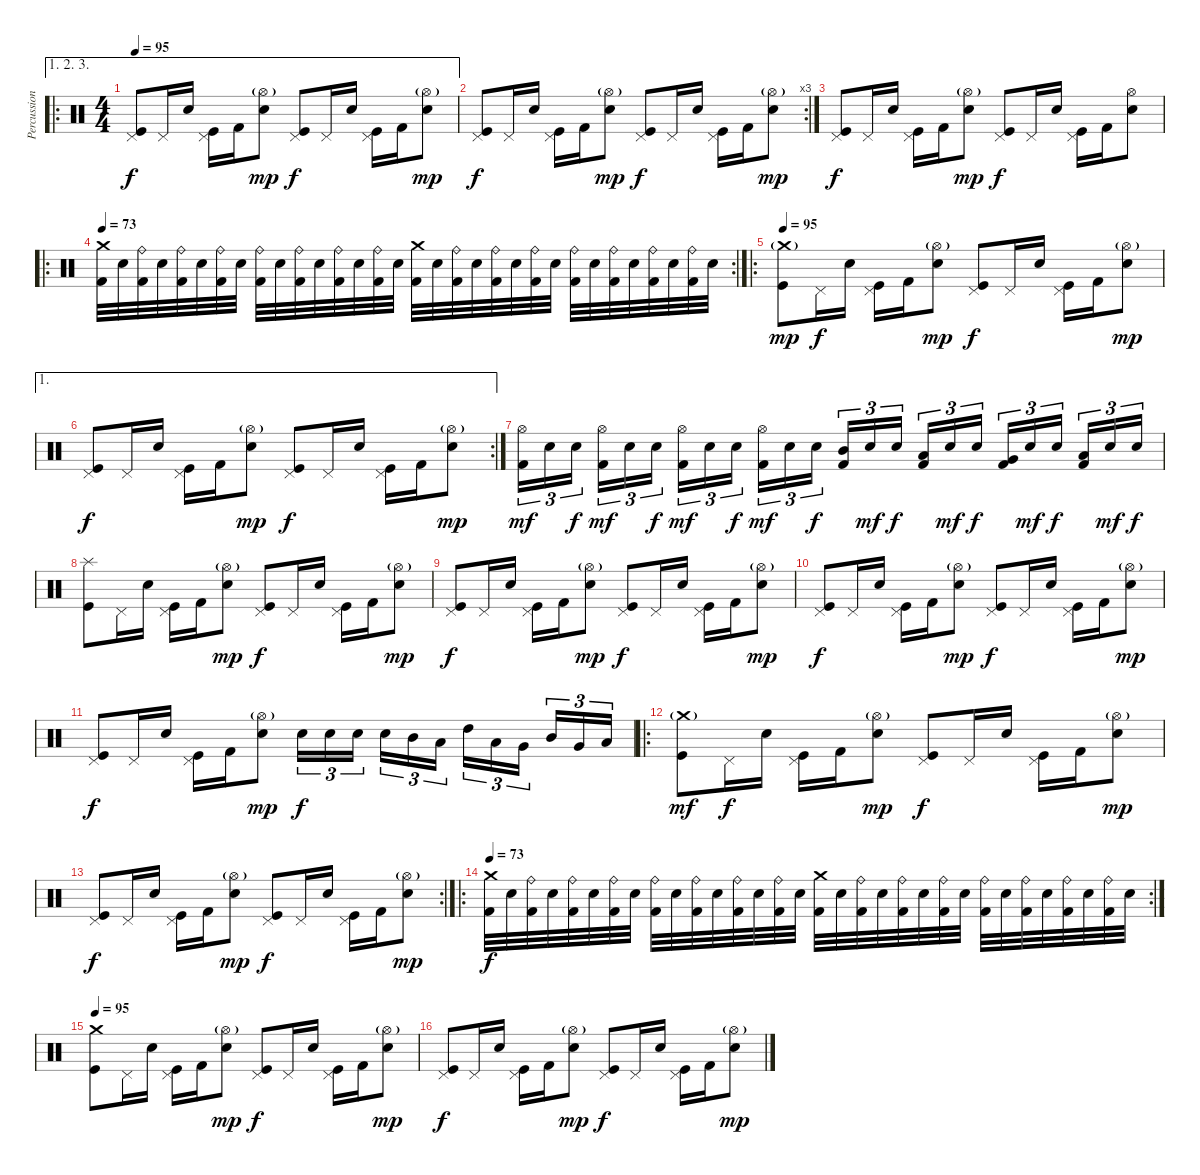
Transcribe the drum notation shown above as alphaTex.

\track ("Percussion" "Percussion") {instrument percussion}
\staff {score}
\articulation defaults
\ae (1 2 3)
\ro
\ts (4 4)
\tempo 95
\clef neutral
\ks c
("Pedal Hi-Hat (hit)" "Kick (hit)").8{dy f} "Pedal Hi-Hat (hit)".16 "Electric Snare (hit)".16 ("Pedal Hi-Hat (hit)" "Kick (hit)").16 "Kick (hit) 2".16 ("Hi-Hat (open)"{g} "Electric Snare (hit)").8{dy mp} ("Pedal Hi-Hat (hit)" "Kick (hit)").8{dy f} "Pedal Hi-Hat (hit)".16 "Electric Snare (hit)".16 ("Pedal Hi-Hat (hit)" "Kick (hit)").16 "Kick (hit) 2".16 ("Hi-Hat (open)"{g} "Electric Snare (hit)").8{dy mp} |
\rc 3
("Pedal Hi-Hat (hit)" "Kick (hit)").8{dy f} "Pedal Hi-Hat (hit)".16 "Electric Snare (hit)".16 ("Pedal Hi-Hat (hit)" "Kick (hit)").16 "Kick (hit) 2".16 ("Hi-Hat (open)"{g} "Electric Snare (hit)").8{dy mp} ("Pedal Hi-Hat (hit)" "Kick (hit)").8{dy f} "Pedal Hi-Hat (hit)".16 "Electric Snare (hit)".16 ("Pedal Hi-Hat (hit)" "Kick (hit)").16 "Kick (hit) 2".16 ("Hi-Hat (open)"{g} "Electric Snare (hit)").8{dy mp} |
("Pedal Hi-Hat (hit)" "Kick (hit)").8{dy f} "Pedal Hi-Hat (hit)".16 "Electric Snare (hit)".16 ("Pedal Hi-Hat (hit)" "Kick (hit)").16 "Kick (hit) 2".16 ("Hi-Hat (open)"{g} "Electric Snare (hit)").8{dy mp} ("Pedal Hi-Hat (hit)" "Kick (hit)").8{dy f} "Pedal Hi-Hat (hit)".16 "Electric Snare (hit)".16 ("Pedal Hi-Hat (hit)" "Kick (hit)").16 "Kick (hit) 2".16 ("Hi-Hat (open)" "Electric Snare (hit)").8 |
\ro
\rc 2
\tempo 73
("Crash medium (hit)" "Kick (hit) 2").32 "Electric Snare (hit)".32 ("Ride (bell)" "Kick (hit) 2").32 "Electric Snare (hit)".32 ("Ride (bell)" "Kick (hit) 2").32 "Electric Snare (hit)".32 ("Ride (bell)" "Kick (hit) 2").32 "Electric Snare (hit)".32 ("Ride (bell)" "Kick (hit) 2").32 "Electric Snare (hit)".32 ("Ride (bell)" "Kick (hit) 2").32 "Electric Snare (hit)".32 ("Ride (bell)" "Kick (hit) 2").32 "Electric Snare (hit)".32 ("Ride (bell)" "Kick (hit) 2").32 "Electric Snare (hit)".32 ("Crash medium (hit)" "Kick (hit) 2").32 "Electric Snare (hit)".32 ("Ride (bell)" "Kick (hit) 2").32 "Electric Snare (hit)".32 ("Ride (bell)" "Kick (hit) 2").32 "Electric Snare (hit)".32 ("Ride (bell)" "Kick (hit) 2").32 "Electric Snare (hit)".32 ("Ride (bell)" "Kick (hit) 2").32 "Electric Snare (hit)".32 ("Ride (bell)" "Kick (hit) 2").32 "Electric Snare (hit)".32 ("Ride (bell)" "Kick (hit) 2").32 "Electric Snare (hit)".32 ("Ride (bell)" "Kick (hit) 2").32 "Electric Snare (hit)".32 |
\ro
\tempo 95
("Crash medium (hit)"{g} "Kick (hit)").8{dy mp} "Pedal Hi-Hat (hit)".16{dy f} "Electric Snare (hit)".16 ("Pedal Hi-Hat (hit)" "Kick (hit)").16 "Kick (hit) 2".16 ("Hi-Hat (open)"{g} "Electric Snare (hit)").8{dy mp} ("Pedal Hi-Hat (hit)" "Kick (hit)").8{dy f} "Pedal Hi-Hat (hit)".16 "Electric Snare (hit)".16 ("Pedal Hi-Hat (hit)" "Kick (hit)").16 "Kick (hit) 2".16 ("Hi-Hat (open)"{g} "Electric Snare (hit)").8{dy mp} |
\ae 1
\rc 2
("Pedal Hi-Hat (hit)" "Kick (hit)").8{dy f} "Pedal Hi-Hat (hit)".16 "Electric Snare (hit)".16 ("Pedal Hi-Hat (hit)" "Kick (hit)").16 "Kick (hit) 2".16 ("Hi-Hat (open)"{g} "Electric Snare (hit)").8{dy mp} ("Pedal Hi-Hat (hit)" "Kick (hit)").8{dy f} "Pedal Hi-Hat (hit)".16 "Electric Snare (hit)".16 ("Pedal Hi-Hat (hit)" "Kick (hit)").16 "Kick (hit) 2".16 ("Hi-Hat (open)"{g} "Electric Snare (hit)").8{dy mp} |
("Hi-Hat (open)" "Kick (hit) 2").16{tu (3 2) dy mf} "Electric Snare (hit)".16{tu (3 2)} "Electric Snare (hit)".16{tu (3 2) dy f beam splitsecondary} ("Hi-Hat (open)" "Kick (hit) 2").16{tu (3 2) dy mf} "Electric Snare (hit)".16{tu (3 2)} "Electric Snare (hit)".16{tu (3 2) dy f} ("Hi-Hat (open)" "Kick (hit) 2").16{tu (3 2) dy mf} "Electric Snare (hit)".16{tu (3 2)} "Electric Snare (hit)".16{tu (3 2) dy f beam splitsecondary} ("Hi-Hat (open)" "Kick (hit) 2").16{tu (3 2) dy mf} "Electric Snare (hit)".16{tu (3 2)} "Electric Snare (hit)".16{tu (3 2) dy f} ("Mid Tom (hit)" "Kick (hit) 2").16{tu (3 2)} "Electric Snare (hit)".16{tu (3 2) dy mf} "Electric Snare (hit)".16{tu (3 2) dy f beam splitsecondary} ("Low Tom (hit)" "Kick (hit) 2").16{tu (3 2)} "Electric Snare (hit)".16{tu (3 2) dy mf} "Electric Snare (hit)".16{tu (3 2) dy f} ("Very Low Tom (hit)" "Kick (hit) 2").16{tu (3 2)} "Electric Snare (hit)".16{tu (3 2) dy mf} "Electric Snare (hit)".16{tu (3 2) dy f beam splitsecondary} ("Low Floor Tom (hit)" "Kick (hit) 2").16{tu (3 2)} "Electric Snare (hit)".16{tu (3 2) dy mf} "Electric Snare (hit)".16{tu (3 2) dy f} |
("Splash (hit)" "Kick (hit)").8 "Pedal Hi-Hat (hit)".16 "Electric Snare (hit)".16 ("Pedal Hi-Hat (hit)" "Kick (hit)").16 "Kick (hit) 2".16 ("Hi-Hat (open)"{g} "Electric Snare (hit)").8{dy mp} ("Pedal Hi-Hat (hit)" "Kick (hit)").8{dy f} "Pedal Hi-Hat (hit)".16 "Electric Snare (hit)".16 ("Pedal Hi-Hat (hit)" "Kick (hit)").16 "Kick (hit) 2".16 ("Hi-Hat (open)"{g} "Electric Snare (hit)").8{dy mp} |
("Pedal Hi-Hat (hit)" "Kick (hit)").8{dy f} "Pedal Hi-Hat (hit)".16 "Electric Snare (hit)".16 ("Pedal Hi-Hat (hit)" "Kick (hit)").16 "Kick (hit) 2".16 ("Hi-Hat (open)"{g} "Electric Snare (hit)").8{dy mp} ("Pedal Hi-Hat (hit)" "Kick (hit)").8{dy f} "Pedal Hi-Hat (hit)".16 "Electric Snare (hit)".16 ("Pedal Hi-Hat (hit)" "Kick (hit)").16 "Kick (hit) 2".16 ("Hi-Hat (open)"{g} "Electric Snare (hit)").8{dy mp} |
("Pedal Hi-Hat (hit)" "Kick (hit)").8{dy f} "Pedal Hi-Hat (hit)".16 "Electric Snare (hit)".16 ("Pedal Hi-Hat (hit)" "Kick (hit)").16 "Kick (hit) 2".16 ("Hi-Hat (open)"{g} "Electric Snare (hit)").8{dy mp} ("Pedal Hi-Hat (hit)" "Kick (hit)").8{dy f} "Pedal Hi-Hat (hit)".16 "Electric Snare (hit)".16 ("Pedal Hi-Hat (hit)" "Kick (hit)").16 "Kick (hit) 2".16 ("Hi-Hat (open)"{g} "Electric Snare (hit)").8{dy mp} |
("Pedal Hi-Hat (hit)" "Kick (hit)").8{dy f} "Pedal Hi-Hat (hit)".16 "Electric Snare (hit)".16 ("Pedal Hi-Hat (hit)" "Kick (hit)").16 "Kick (hit) 2".16 ("Hi-Hat (open)"{g} "Electric Snare (hit)").8{dy mp} "Electric Snare (hit)".16{tu (3 2) dy f} "Electric Snare (hit)".16{tu (3 2)} "Electric Snare (hit)".16{tu (3 2) beam splitsecondary} "Electric Snare (hit)".16{tu (3 2)} "Mid Tom (hit)".16{tu (3 2)} "Low Tom (hit)".16{tu (3 2)} "High Tom (hit)".16{tu (3 2)} "Low Tom (hit)".16{tu (3 2)} "Very Low Tom (hit)".16{tu (3 2) beam splitsecondary} "Mid Tom (hit)".16{tu (3 2)} "Very Low Tom (hit)".16{tu (3 2)} "Low Floor Tom (hit)".16{tu (3 2)} |
\ro
("Crash medium (hit)"{g} "Kick (hit)").8{dy mf} "Pedal Hi-Hat (hit)".16{dy f} "Electric Snare (hit)".16 ("Pedal Hi-Hat (hit)" "Kick (hit)").16 "Kick (hit) 2".16 ("Hi-Hat (open)"{g} "Electric Snare (hit)").8{dy mp} ("Pedal Hi-Hat (hit)" "Kick (hit)").8{dy f} "Pedal Hi-Hat (hit)".16 "Electric Snare (hit)".16 ("Pedal Hi-Hat (hit)" "Kick (hit)").16 "Kick (hit) 2".16 ("Hi-Hat (open)"{g} "Electric Snare (hit)").8{dy mp} |
\rc 2
("Pedal Hi-Hat (hit)" "Kick (hit)").8{dy f} "Pedal Hi-Hat (hit)".16 "Electric Snare (hit)".16 ("Pedal Hi-Hat (hit)" "Kick (hit)").16 "Kick (hit) 2".16 ("Hi-Hat (open)"{g} "Electric Snare (hit)").8{dy mp} ("Pedal Hi-Hat (hit)" "Kick (hit)").8{dy f} "Pedal Hi-Hat (hit)".16 "Electric Snare (hit)".16 ("Pedal Hi-Hat (hit)" "Kick (hit)").16 "Kick (hit) 2".16 ("Hi-Hat (open)"{g} "Electric Snare (hit)").8{dy mp} |
\ro
\rc 2
\tempo 73
("Crash medium (hit)" "Kick (hit) 2").32{dy f} "Electric Snare (hit)".32 ("Ride (bell)" "Kick (hit) 2").32 "Electric Snare (hit)".32 ("Ride (bell)" "Kick (hit) 2").32 "Electric Snare (hit)".32 ("Ride (bell)" "Kick (hit) 2").32 "Electric Snare (hit)".32 ("Ride (bell)" "Kick (hit) 2").32 "Electric Snare (hit)".32 ("Ride (bell)" "Kick (hit) 2").32 "Electric Snare (hit)".32 ("Ride (bell)" "Kick (hit) 2").32 "Electric Snare (hit)".32 ("Ride (bell)" "Kick (hit) 2").32 "Electric Snare (hit)".32 ("Crash medium (hit)" "Kick (hit) 2").32 "Electric Snare (hit)".32 ("Ride (bell)" "Kick (hit) 2").32 "Electric Snare (hit)".32 ("Ride (bell)" "Kick (hit) 2").32 "Electric Snare (hit)".32 ("Ride (bell)" "Kick (hit) 2").32 "Electric Snare (hit)".32 ("Ride (bell)" "Kick (hit) 2").32 "Electric Snare (hit)".32 ("Ride (bell)" "Kick (hit) 2").32 "Electric Snare (hit)".32 ("Ride (bell)" "Kick (hit) 2").32 "Electric Snare (hit)".32 ("Ride (bell)" "Kick (hit) 2").32 "Electric Snare (hit)".32 |
\tempo 95
("Crash medium (hit)" "Kick (hit)").8 "Pedal Hi-Hat (hit)".16 "Electric Snare (hit)".16 ("Pedal Hi-Hat (hit)" "Kick (hit)").16 "Kick (hit) 2".16 ("Hi-Hat (open)"{g} "Electric Snare (hit)").8{dy mp} ("Pedal Hi-Hat (hit)" "Kick (hit)").8{dy f} "Pedal Hi-Hat (hit)".16 "Electric Snare (hit)".16 ("Pedal Hi-Hat (hit)" "Kick (hit)").16 "Kick (hit) 2".16 ("Hi-Hat (open)"{g} "Electric Snare (hit)").8{dy mp} |
("Pedal Hi-Hat (hit)" "Kick (hit)").8{dy f} "Pedal Hi-Hat (hit)".16 "Electric Snare (hit)".16 ("Pedal Hi-Hat (hit)" "Kick (hit)").16 "Kick (hit) 2".16 ("Hi-Hat (open)"{g} "Electric Snare (hit)").8{dy mp} ("Pedal Hi-Hat (hit)" "Kick (hit)").8{dy f} "Pedal Hi-Hat (hit)".16 "Electric Snare (hit)".16 ("Pedal Hi-Hat (hit)" "Kick (hit)").16 "Kick (hit) 2".16 ("Hi-Hat (open)"{g} "Electric Snare (hit)").8{dy mp}
